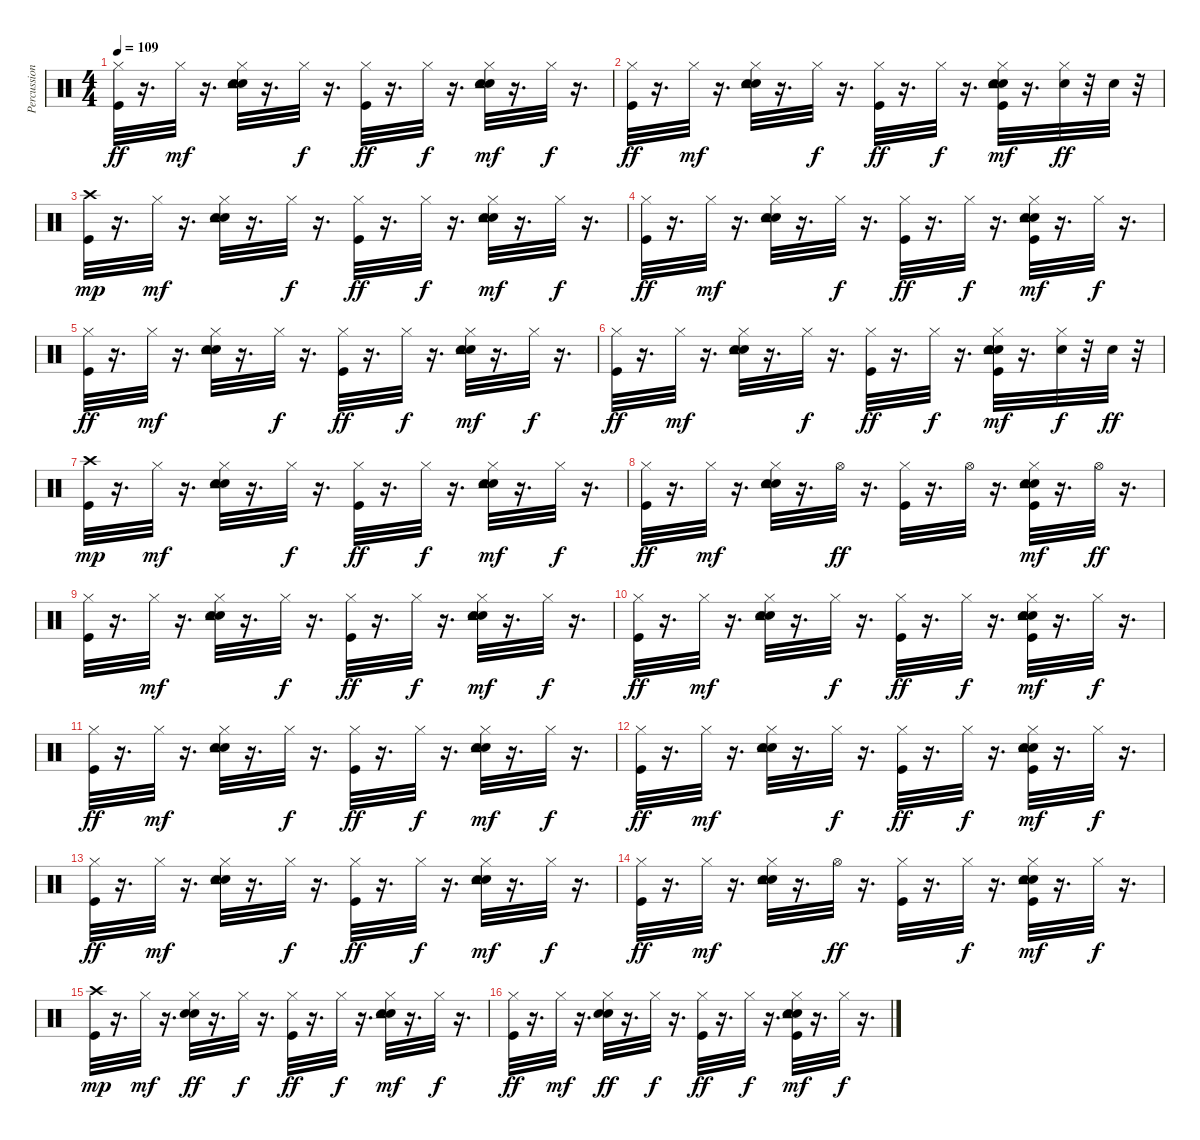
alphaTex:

\track ("Percussion" "Percussion") {instrument percussion}
\staff {score}
\articulation defaults
\ts (4 4)
\tempo 109
\clef neutral
\ks c
("Kick (hit)" "Hi-Hat (closed)").32{dy ff} r.16{d} "Hi-Hat (closed)".32{dy mf} r.16{d} ("Snare (hit) 2" "Hand Clap (hit)" "Hi-Hat (closed)" "Tambourine (hit)").32 r.16{d} "Hi-Hat (closed)".32{dy f} r.16{d} ("Kick (hit)" "Hi-Hat (closed)").32{dy ff} r.16{d} "Hi-Hat (closed)".32{dy f} r.16{d} ("Snare (hit) 2" "Hand Clap (hit)" "Hi-Hat (closed)" "Tambourine (hit)").32{dy mf} r.16{d} "Hi-Hat (closed)".32{dy f} r.16{d} |
("Kick (hit)" "Hi-Hat (closed)").32{dy ff} r.16{d} "Hi-Hat (closed)".32{dy mf} r.16{d} ("Snare (hit) 2" "Hand Clap (hit)" "Hi-Hat (closed)" "Tambourine (hit)").32 r.16{d} "Hi-Hat (closed)".32{dy f} r.16{d} ("Kick (hit)" "Hi-Hat (closed)").32{dy ff} r.16{d} "Hi-Hat (closed)".32{dy f} r.16{d} ("Kick (hit)" "Snare (hit) 2" "Hand Clap (hit)" "Hi-Hat (closed)" "Tambourine (hit)").32{dy mf} r.16{d} ("Snare (hit) 2" "Hi-Hat (closed)").32{dy ff} r.32 "Snare (hit) 2".32 r.32 |
("Kick (hit)" "Crash high (hit)").32{dy mp} r.16{d} "Hi-Hat (closed)".32{dy mf} r.16{d} ("Snare (hit) 2" "Hand Clap (hit)" "Hi-Hat (closed)" "Tambourine (hit)").32 r.16{d} "Hi-Hat (closed)".32{dy f} r.16{d} ("Kick (hit)" "Hi-Hat (closed)").32{dy ff} r.16{d} "Hi-Hat (closed)".32{dy f} r.16{d} ("Snare (hit) 2" "Hand Clap (hit)" "Hi-Hat (closed)" "Tambourine (hit)").32{dy mf} r.16{d} "Hi-Hat (closed)".32{dy f} r.16{d} |
("Kick (hit)" "Hi-Hat (closed)").32{dy ff} r.16{d} "Hi-Hat (closed)".32{dy mf} r.16{d} ("Snare (hit) 2" "Hand Clap (hit)" "Hi-Hat (closed)" "Tambourine (hit)").32 r.16{d} "Hi-Hat (closed)".32{dy f} r.16{d} ("Kick (hit)" "Hi-Hat (closed)").32{dy ff} r.16{d} "Hi-Hat (closed)".32{dy f} r.16{d} ("Kick (hit)" "Snare (hit) 2" "Hand Clap (hit)" "Hi-Hat (closed)" "Tambourine (hit)").32{dy mf} r.16{d} "Hi-Hat (closed)".32{dy f} r.16{d} |
("Kick (hit)" "Hi-Hat (closed)").32{dy ff} r.16{d} "Hi-Hat (closed)".32{dy mf} r.16{d} ("Snare (hit) 2" "Hand Clap (hit)" "Hi-Hat (closed)" "Tambourine (hit)").32 r.16{d} "Hi-Hat (closed)".32{dy f} r.16{d} ("Kick (hit)" "Hi-Hat (closed)").32{dy ff} r.16{d} "Hi-Hat (closed)".32{dy f} r.16{d} ("Snare (hit) 2" "Hand Clap (hit)" "Hi-Hat (closed)" "Tambourine (hit)").32{dy mf} r.16{d} "Hi-Hat (closed)".32{dy f} r.16{d} |
("Kick (hit)" "Hi-Hat (closed)").32{dy ff} r.16{d} "Hi-Hat (closed)".32{dy mf} r.16{d} ("Snare (hit) 2" "Hand Clap (hit)" "Hi-Hat (closed)" "Tambourine (hit)").32 r.16{d} "Hi-Hat (closed)".32{dy f} r.16{d} ("Kick (hit)" "Hi-Hat (closed)").32{dy ff} r.16{d} "Hi-Hat (closed)".32{dy f} r.16{d} ("Kick (hit)" "Snare (hit) 2" "Hand Clap (hit)" "Hi-Hat (closed)" "Tambourine (hit)").32{dy mf} r.16{d} ("Snare (hit) 2" "Hi-Hat (closed)").32{dy f} r.32 "Snare (hit) 2".32{dy ff} r.32 |
("Kick (hit)" "Crash high (hit)").32{dy mp} r.16{d} "Hi-Hat (closed)".32{dy mf} r.16{d} ("Snare (hit) 2" "Hand Clap (hit)" "Hi-Hat (closed)" "Tambourine (hit)").32 r.16{d} "Hi-Hat (closed)".32{dy f} r.16{d} ("Kick (hit)" "Hi-Hat (closed)").32{dy ff} r.16{d} "Hi-Hat (closed)".32{dy f} r.16{d} ("Snare (hit) 2" "Hand Clap (hit)" "Hi-Hat (closed)" "Tambourine (hit)").32{dy mf} r.16{d} "Hi-Hat (closed)".32{dy f} r.16{d} |
("Kick (hit)" "Hi-Hat (closed)").32{dy ff} r.16{d} "Hi-Hat (closed)".32{dy mf} r.16{d} ("Snare (hit) 2" "Hand Clap (hit)" "Hi-Hat (closed)" "Tambourine (hit)").32 r.16{d} "Hi-Hat (open)".32{dy ff} r.16{d} ("Kick (hit)" "Hi-Hat (closed)").32 r.16{d} "Hi-Hat (open)".32 r.16{d} ("Kick (hit)" "Snare (hit) 2" "Hand Clap (hit)" "Hi-Hat (closed)" "Tambourine (hit)").32{dy mf} r.16{d} "Hi-Hat (open)".32{dy ff} r.16{d} |
("Kick (hit)" "Hi-Hat (closed)").32 r.16{d} "Hi-Hat (closed)".32{dy mf} r.16{d} ("Snare (hit) 2" "Hand Clap (hit)" "Hi-Hat (closed)" "Tambourine (hit)").32 r.16{d} "Hi-Hat (closed)".32{dy f} r.16{d} ("Kick (hit)" "Hi-Hat (closed)").32{dy ff} r.16{d} "Hi-Hat (closed)".32{dy f} r.16{d} ("Snare (hit) 2" "Hand Clap (hit)" "Hi-Hat (closed)" "Tambourine (hit)").32{dy mf} r.16{d} "Hi-Hat (closed)".32{dy f} r.16{d} |
("Kick (hit)" "Hi-Hat (closed)").32{dy ff} r.16{d} "Hi-Hat (closed)".32{dy mf} r.16{d} ("Snare (hit) 2" "Hand Clap (hit)" "Hi-Hat (closed)" "Tambourine (hit)").32 r.16{d} "Hi-Hat (closed)".32{dy f} r.16{d} ("Kick (hit)" "Hi-Hat (closed)").32{dy ff} r.16{d} "Hi-Hat (closed)".32{dy f} r.16{d} ("Kick (hit)" "Snare (hit) 2" "Hand Clap (hit)" "Hi-Hat (closed)" "Tambourine (hit)").32{dy mf} r.16{d} "Hi-Hat (closed)".32{dy f} r.16{d} |
("Kick (hit)" "Hi-Hat (closed)").32{dy ff} r.16{d} "Hi-Hat (closed)".32{dy mf} r.16{d} ("Snare (hit) 2" "Hand Clap (hit)" "Hi-Hat (closed)" "Tambourine (hit)").32 r.16{d} "Hi-Hat (closed)".32{dy f} r.16{d} ("Kick (hit)" "Hi-Hat (closed)").32{dy ff} r.16{d} "Hi-Hat (closed)".32{dy f} r.16{d} ("Snare (hit) 2" "Hand Clap (hit)" "Hi-Hat (closed)" "Tambourine (hit)").32{dy mf} r.16{d} "Hi-Hat (closed)".32{dy f} r.16{d} |
("Kick (hit)" "Hi-Hat (closed)").32{dy ff} r.16{d} "Hi-Hat (closed)".32{dy mf} r.16{d} ("Snare (hit) 2" "Hand Clap (hit)" "Hi-Hat (closed)" "Tambourine (hit)").32 r.16{d} "Hi-Hat (closed)".32{dy f} r.16{d} ("Kick (hit)" "Hi-Hat (closed)").32{dy ff} r.16{d} "Hi-Hat (closed)".32{dy f} r.16{d} ("Kick (hit)" "Snare (hit) 2" "Hand Clap (hit)" "Hi-Hat (closed)" "Tambourine (hit)").32{dy mf} r.16{d} "Hi-Hat (closed)".32{dy f} r.16{d} |
("Kick (hit)" "Hi-Hat (closed)").32{dy ff} r.16{d} "Hi-Hat (closed)".32{dy mf} r.16{d} ("Snare (hit) 2" "Hand Clap (hit)" "Hi-Hat (closed)" "Tambourine (hit)").32 r.16{d} "Hi-Hat (closed)".32{dy f} r.16{d} ("Kick (hit)" "Hi-Hat (closed)").32{dy ff} r.16{d} "Hi-Hat (closed)".32{dy f} r.16{d} ("Snare (hit) 2" "Hand Clap (hit)" "Hi-Hat (closed)" "Tambourine (hit)").32{dy mf} r.16{d} "Hi-Hat (closed)".32{dy f} r.16{d} |
("Kick (hit)" "Hi-Hat (closed)").32{dy ff} r.16{d} "Hi-Hat (closed)".32{dy mf} r.16{d} ("Snare (hit) 2" "Hand Clap (hit)" "Hi-Hat (closed)" "Tambourine (hit)").32 r.16{d} "Hi-Hat (open)".32{dy ff} r.16{d} ("Kick (hit)" "Hi-Hat (closed)").32 r.16{d} "Hi-Hat (closed)".32{dy f} r.16{d} ("Kick (hit)" "Snare (hit) 2" "Hand Clap (hit)" "Hi-Hat (closed)" "Tambourine (hit)").32{dy mf} r.16{d} "Hi-Hat (closed)".32{dy f} r.16{d} |
("Kick (hit)" "Crash high (hit)").32{dy mp} r.16{d} "Hi-Hat (closed)".32{dy mf} r.16{d} ("Snare (hit) 2" "Hand Clap (hit)" "Hi-Hat (closed)").32{dy ff} r.16{d} "Hi-Hat (closed)".32{dy f} r.16{d} ("Kick (hit)" "Hi-Hat (closed)").32{dy ff} r.16{d} "Hi-Hat (closed)".32{dy f} r.16{d} ("Snare (hit) 2" "Hand Clap (hit)" "Hi-Hat (closed)" "Tambourine (hit)").32{dy mf} r.16{d} "Hi-Hat (closed)".32{dy f} r.16{d} |
("Kick (hit)" "Hi-Hat (closed)").32{dy ff} r.16{d} "Hi-Hat (closed)".32{dy mf} r.16{d} ("Snare (hit) 2" "Hand Clap (hit)" "Hi-Hat (closed)").32{dy ff} r.16{d} "Hi-Hat (closed)".32{dy f} r.16{d} ("Kick (hit)" "Hi-Hat (closed)").32{dy ff} r.16{d} "Hi-Hat (closed)".32{dy f} r.16{d} ("Kick (hit)" "Snare (hit) 2" "Hand Clap (hit)" "Hi-Hat (closed)" "Tambourine (hit)").32{dy mf} r.16{d} "Hi-Hat (closed)".32{dy f} r.16{d}
